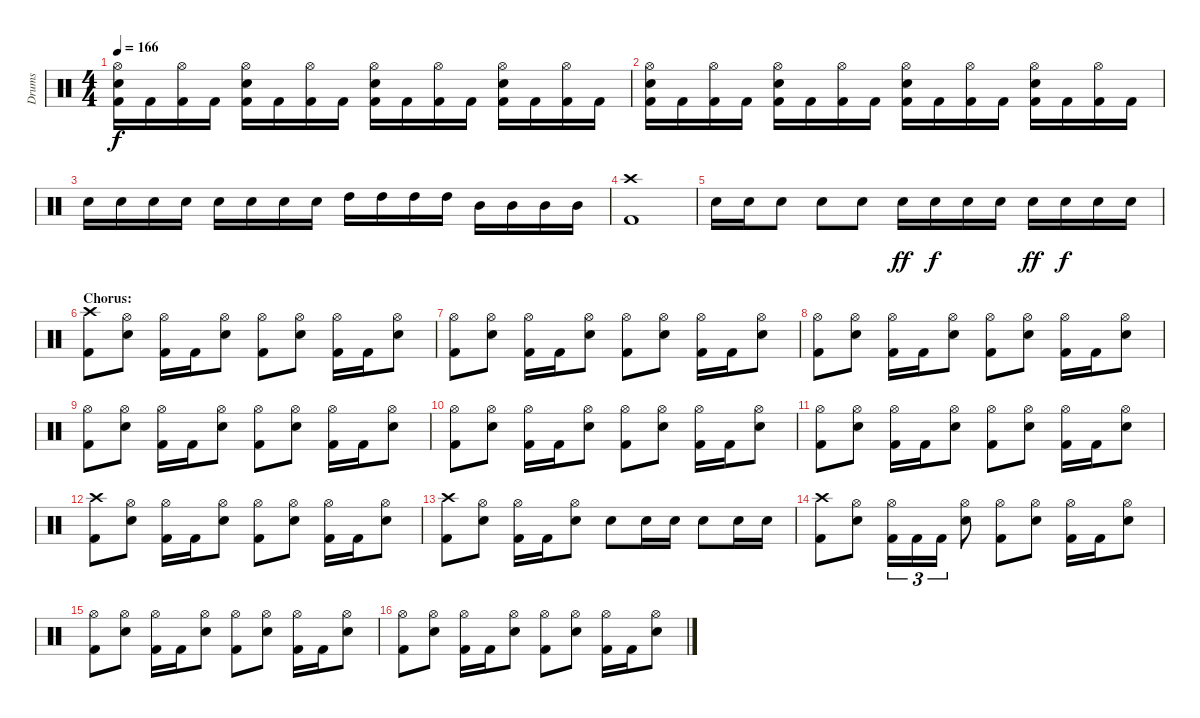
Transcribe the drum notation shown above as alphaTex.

\track ("Drums" "Drums") {instrument percussion}
\staff {score}
\articulation defaults
\ts (4 4)
\tempo 166
\clef neutral
\ks c
("Hi-Hat (open)" "Electric Snare (hit)" "Kick (hit) 2").16{dy f} "Kick (hit) 2".16 ("Hi-Hat (open)" "Kick (hit) 2").16 "Kick (hit) 2".16 ("Hi-Hat (open)" "Electric Snare (hit)" "Kick (hit) 2").16 "Kick (hit) 2".16 ("Hi-Hat (open)" "Kick (hit) 2").16 "Kick (hit) 2".16 ("Hi-Hat (open)" "Electric Snare (hit)" "Kick (hit) 2").16 "Kick (hit) 2".16 ("Hi-Hat (open)" "Kick (hit) 2").16 "Kick (hit) 2".16 ("Hi-Hat (open)" "Electric Snare (hit)" "Kick (hit) 2").16 "Kick (hit) 2".16 ("Hi-Hat (open)" "Kick (hit) 2").16 "Kick (hit) 2".16 |
("Hi-Hat (open)" "Electric Snare (hit)" "Kick (hit) 2").16 "Kick (hit) 2".16 ("Hi-Hat (open)" "Kick (hit) 2").16 "Kick (hit) 2".16 ("Hi-Hat (open)" "Electric Snare (hit)" "Kick (hit) 2").16 "Kick (hit) 2".16 ("Hi-Hat (open)" "Kick (hit) 2").16 "Kick (hit) 2".16 ("Hi-Hat (open)" "Electric Snare (hit)" "Kick (hit) 2").16 "Kick (hit) 2".16 ("Hi-Hat (open)" "Kick (hit) 2").16 "Kick (hit) 2".16 ("Hi-Hat (open)" "Electric Snare (hit)" "Kick (hit) 2").16 "Kick (hit) 2".16 ("Hi-Hat (open)" "Kick (hit) 2").16 "Kick (hit) 2".16 |
"Electric Snare (hit)".16 "Electric Snare (hit)".16 "Electric Snare (hit)".16 "Electric Snare (hit)".16 "Electric Snare (hit)".16 "Electric Snare (hit)".16 "Electric Snare (hit)".16 "Electric Snare (hit)".16 "High Tom (hit)".16 "High Tom (hit)".16 "High Tom (hit)".16 "High Tom (hit)".16 "Mid Tom (hit)".16 "Mid Tom (hit)".16 "Mid Tom (hit)".16 "Mid Tom (hit)".16 |
("Crash high (hit)" "Kick (hit) 2").1 |
"Electric Snare (hit)".16 "Electric Snare (hit)".16 "Electric Snare (hit)".8 "Electric Snare (hit)".8 "Electric Snare (hit)".8 "Electric Snare (hit)".16{dy ff} "Electric Snare (hit)".16{dy f} "Electric Snare (hit)".16 "Electric Snare (hit)".16 "Electric Snare (hit)".16{dy ff} "Electric Snare (hit)".16{dy f} "Electric Snare (hit)".16 "Electric Snare (hit)".16 |
\section ("" "Chorus:")
("Crash high (hit)" "Kick (hit) 2").8 ("Hi-Hat (open)" "Electric Snare (hit)").8 ("Hi-Hat (open)" "Kick (hit) 2").16 "Kick (hit) 2".16 ("Hi-Hat (open)" "Electric Snare (hit)").8 ("Hi-Hat (open)" "Kick (hit) 2").8 ("Hi-Hat (open)" "Electric Snare (hit)").8 ("Hi-Hat (open)" "Kick (hit) 2").16 "Kick (hit) 2".16 ("Hi-Hat (open)" "Electric Snare (hit)").8 |
("Hi-Hat (open)" "Kick (hit) 2").8 ("Hi-Hat (open)" "Electric Snare (hit)").8 ("Hi-Hat (open)" "Kick (hit) 2").16 "Kick (hit) 2".16 ("Hi-Hat (open)" "Electric Snare (hit)").8 ("Hi-Hat (open)" "Kick (hit) 2").8 ("Hi-Hat (open)" "Electric Snare (hit)").8 ("Hi-Hat (open)" "Kick (hit) 2").16 "Kick (hit) 2".16 ("Hi-Hat (open)" "Electric Snare (hit)").8 |
("Hi-Hat (open)" "Kick (hit) 2").8 ("Hi-Hat (open)" "Electric Snare (hit)").8 ("Hi-Hat (open)" "Kick (hit) 2").16 "Kick (hit) 2".16 ("Hi-Hat (open)" "Electric Snare (hit)").8 ("Hi-Hat (open)" "Kick (hit) 2").8 ("Hi-Hat (open)" "Electric Snare (hit)").8 ("Hi-Hat (open)" "Kick (hit) 2").16 "Kick (hit) 2".16 ("Hi-Hat (open)" "Electric Snare (hit)").8 |
("Hi-Hat (open)" "Kick (hit) 2").8 ("Hi-Hat (open)" "Electric Snare (hit)").8 ("Hi-Hat (open)" "Kick (hit) 2").16 "Kick (hit) 2".16 ("Hi-Hat (open)" "Electric Snare (hit)").8 ("Hi-Hat (open)" "Kick (hit) 2").8 ("Hi-Hat (open)" "Electric Snare (hit)").8 ("Hi-Hat (open)" "Kick (hit) 2").16 "Kick (hit) 2".16 ("Hi-Hat (open)" "Electric Snare (hit)").8 |
("Hi-Hat (open)" "Kick (hit) 2").8 ("Hi-Hat (open)" "Electric Snare (hit)").8 ("Hi-Hat (open)" "Kick (hit) 2").16 "Kick (hit) 2".16 ("Hi-Hat (open)" "Electric Snare (hit)").8 ("Hi-Hat (open)" "Kick (hit) 2").8 ("Hi-Hat (open)" "Electric Snare (hit)").8 ("Hi-Hat (open)" "Kick (hit) 2").16 "Kick (hit) 2".16 ("Hi-Hat (open)" "Electric Snare (hit)").8 |
("Hi-Hat (open)" "Kick (hit) 2").8 ("Hi-Hat (open)" "Electric Snare (hit)").8 ("Hi-Hat (open)" "Kick (hit) 2").16 "Kick (hit) 2".16 ("Hi-Hat (open)" "Electric Snare (hit)").8 ("Hi-Hat (open)" "Kick (hit) 2").8 ("Hi-Hat (open)" "Electric Snare (hit)").8 ("Hi-Hat (open)" "Kick (hit) 2").16 "Kick (hit) 2".16 ("Hi-Hat (open)" "Electric Snare (hit)").8 |
("Crash high (hit)" "Kick (hit) 2").8 ("Hi-Hat (open)" "Electric Snare (hit)").8 ("Hi-Hat (open)" "Kick (hit) 2").16 "Kick (hit) 2".16 ("Hi-Hat (open)" "Electric Snare (hit)").8 ("Hi-Hat (open)" "Kick (hit) 2").8 ("Hi-Hat (open)" "Electric Snare (hit)").8 ("Hi-Hat (open)" "Kick (hit) 2").16 "Kick (hit) 2".16 ("Hi-Hat (open)" "Electric Snare (hit)").8 |
("Crash high (hit)" "Kick (hit) 2").8 ("Hi-Hat (open)" "Electric Snare (hit)").8 ("Hi-Hat (open)" "Kick (hit) 2").16 "Kick (hit) 2".16 ("Hi-Hat (open)" "Electric Snare (hit)").8 "Electric Snare (hit)".8 "Electric Snare (hit)".16 "Electric Snare (hit)".16 "Electric Snare (hit)".8 "Electric Snare (hit)".16 "Electric Snare (hit)".16 |
("Crash high (hit)" "Kick (hit) 2").8 ("Hi-Hat (open)" "Electric Snare (hit)").8 ("Hi-Hat (open)" "Kick (hit) 2").16{tu (3 2)} "Kick (hit) 2".16{tu (3 2)} "Kick (hit) 2".16{tu (3 2)} ("Hi-Hat (open)" "Electric Snare (hit)").8 ("Hi-Hat (open)" "Kick (hit) 2").8 ("Hi-Hat (open)" "Electric Snare (hit)").8 ("Hi-Hat (open)" "Kick (hit) 2").16 "Kick (hit) 2".16 ("Hi-Hat (open)" "Electric Snare (hit)").8 |
("Hi-Hat (open)" "Kick (hit) 2").8 ("Hi-Hat (open)" "Electric Snare (hit)").8 ("Hi-Hat (open)" "Kick (hit) 2").16 "Kick (hit) 2".16 ("Hi-Hat (open)" "Electric Snare (hit)").8 ("Hi-Hat (open)" "Kick (hit) 2").8 ("Hi-Hat (open)" "Electric Snare (hit)").8 ("Hi-Hat (open)" "Kick (hit) 2").16 "Kick (hit) 2".16 ("Hi-Hat (open)" "Electric Snare (hit)").8 |
("Hi-Hat (open)" "Kick (hit) 2").8 ("Hi-Hat (open)" "Electric Snare (hit)").8 ("Hi-Hat (open)" "Kick (hit) 2").16 "Kick (hit) 2".16 ("Hi-Hat (open)" "Electric Snare (hit)").8 ("Hi-Hat (open)" "Kick (hit) 2").8 ("Hi-Hat (open)" "Electric Snare (hit)").8 ("Hi-Hat (open)" "Kick (hit) 2").16 "Kick (hit) 2".16 ("Hi-Hat (open)" "Electric Snare (hit)").8
